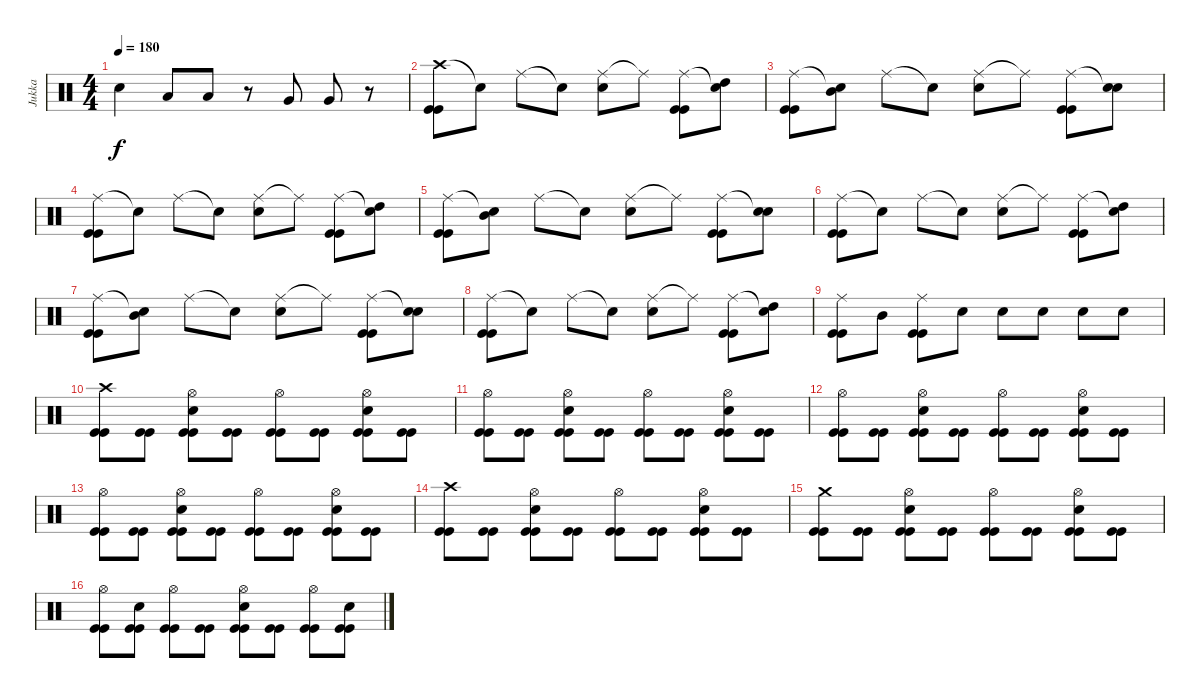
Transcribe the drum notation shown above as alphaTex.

\track ("Jukka" "Jukka") {instrument percussion}
\staff {score}
\articulation defaults
\ts (4 4)
\tempo 180
\clef neutral
\ks c "Snare (hit) 2".4{dy f} "Low Tom (hit)".8 "Low Tom (hit)".8
r.8 "Very Low Tom (hit)".8 "Very Low Tom (hit)".8 r.8 |
("Crash high (hit)" "Kick (hit)" "Kick (hit)").8 "Snare (hit)"{t}.8 "Ride (middle)".8 "Snare (hit)"{t}.8 ("Ride (middle)" "Snare (hit) 2").8 "Ride (middle)"{t}.8 ("Ride (middle)" "Kick (hit)" "Kick (hit)").8 ("Snare (hit)"{t} "High Tom (hit)").8 |
("Ride (middle)" "Kick (hit)" "Kick (hit)").8 ("Snare (hit)"{t} "Mid Tom (hit)").8 "Ride (middle)".8 "Snare (hit)"{t}.8 ("Ride (middle)" "Snare (hit) 2").8 "Ride (middle)"{t}.8 ("Ride (middle)" "Kick (hit)" "Kick (hit)").8 ("Snare (hit)"{t} "Snare (hit) 2").8 |
("Ride (middle)" "Kick (hit)" "Kick (hit)").8 "Snare (hit)"{t}.8 "Ride (middle)".8 "Snare (hit)"{t}.8 ("Ride (middle)" "Snare (hit) 2").8 "Ride (middle)"{t}.8 ("Ride (middle)" "Kick (hit)" "Kick (hit)").8 ("Snare (hit)"{t} "High Tom (hit)").8 |
("Ride (middle)" "Kick (hit)" "Kick (hit)").8 ("Snare (hit)"{t} "Mid Tom (hit)").8 "Ride (middle)".8 "Snare (hit)"{t}.8 ("Ride (middle)" "Snare (hit) 2").8 "Ride (middle)"{t}.8 ("Ride (middle)" "Kick (hit)" "Kick (hit)").8 ("Snare (hit)"{t} "Snare (hit) 2").8 |
("Ride (middle)" "Kick (hit)" "Kick (hit)").8 "Snare (hit)"{t}.8 "Ride (middle)".8 "Snare (hit)"{t}.8 ("Ride (middle)" "Snare (hit) 2").8 "Ride (middle)"{t}.8 ("Ride (middle)" "Kick (hit)" "Kick (hit)").8 ("Snare (hit)"{t} "High Tom (hit)").8 |
("Ride (middle)" "Kick (hit)" "Kick (hit)").8 ("Snare (hit)"{t} "Mid Tom (hit)").8 "Ride (middle)".8 "Snare (hit)"{t}.8 ("Ride (middle)" "Snare (hit) 2").8 "Ride (middle)"{t}.8 ("Ride (middle)" "Kick (hit)" "Kick (hit)").8 ("Snare (hit)"{t} "Snare (hit) 2").8 |
("Ride (middle)" "Kick (hit)" "Kick (hit)").8 "Snare (hit)"{t}.8 "Ride (middle)".8 "Snare (hit)"{t}.8 ("Ride (middle)" "Snare (hit) 2").8 "Ride (middle)"{t}.8 ("Ride (middle)" "Kick (hit)" "Kick (hit)").8 ("Snare (hit)"{t} "High Tom (hit)").8 |
("Ride (middle)" "Kick (hit)" "Kick (hit)").8 "Mid Tom (hit)".8 ("Ride (middle)" "Kick (hit)" "Kick (hit)").8 "Snare (hit) 2".8 "Snare (hit) 2".8 "Snare (hit) 2".8 "Snare (hit) 2".8 "Snare (hit) 2".8 |
("Crash high (hit)" "Kick (hit)" "Kick (hit)").8 ("Kick (hit)" "Kick (hit)").8 ("Hi-Hat (open)" "Kick (hit)" "Kick (hit)" "Snare (hit) 2").8 ("Kick (hit)" "Kick (hit)").8 ("Hi-Hat (open)" "Kick (hit)" "Kick (hit)").8 ("Kick (hit)" "Kick (hit)").8 ("Hi-Hat (open)" "Kick (hit)" "Kick (hit)" "Snare (hit) 2").8 ("Kick (hit)" "Kick (hit)").8 |
("Hi-Hat (open)" "Kick (hit)" "Kick (hit)").8 ("Kick (hit)" "Kick (hit)").8 ("Hi-Hat (open)" "Kick (hit)" "Kick (hit)" "Snare (hit) 2").8 ("Kick (hit)" "Kick (hit)").8 ("Hi-Hat (open)" "Kick (hit)" "Kick (hit)").8 ("Kick (hit)" "Kick (hit)").8 ("Hi-Hat (open)" "Kick (hit)" "Kick (hit)" "Snare (hit) 2").8 ("Kick (hit)" "Kick (hit)").8 |
("Hi-Hat (open)" "Kick (hit)" "Kick (hit)").8 ("Kick (hit)" "Kick (hit)").8 ("Hi-Hat (open)" "Kick (hit)" "Kick (hit)" "Snare (hit) 2").8 ("Kick (hit)" "Kick (hit)").8 ("Hi-Hat (open)" "Kick (hit)" "Kick (hit)").8 ("Kick (hit)" "Kick (hit)").8 ("Hi-Hat (open)" "Kick (hit)" "Kick (hit)" "Snare (hit) 2").8 ("Kick (hit)" "Kick (hit)").8 |
("Hi-Hat (open)" "Kick (hit)" "Kick (hit)").8 ("Kick (hit)" "Kick (hit)").8 ("Hi-Hat (open)" "Kick (hit)" "Kick (hit)" "Snare (hit) 2").8 ("Kick (hit)" "Kick (hit)").8 ("Hi-Hat (open)" "Kick (hit)" "Kick (hit)").8 ("Kick (hit)" "Kick (hit)").8 ("Hi-Hat (open)" "Kick (hit)" "Kick (hit)" "Snare (hit) 2").8 ("Kick (hit)" "Kick (hit)").8 |
("Crash high (hit)" "Kick (hit)" "Kick (hit)").8 ("Kick (hit)" "Kick (hit)").8 ("Hi-Hat (open)" "Kick (hit)" "Kick (hit)" "Snare (hit) 2").8 ("Kick (hit)" "Kick (hit)").8 ("Hi-Hat (open)" "Kick (hit)" "Kick (hit)").8 ("Kick (hit)" "Kick (hit)").8 ("Hi-Hat (open)" "Kick (hit)" "Kick (hit)" "Snare (hit) 2").8 ("Kick (hit)" "Kick (hit)").8 |
("Crash medium (hit)" "Kick (hit)" "Kick (hit)").8 ("Kick (hit)" "Kick (hit)").8 ("Hi-Hat (open)" "Kick (hit)" "Kick (hit)" "Snare (hit) 2").8 ("Kick (hit)" "Kick (hit)").8 ("Hi-Hat (open)" "Kick (hit)" "Kick (hit)").8 ("Kick (hit)" "Kick (hit)").8 ("Hi-Hat (open)" "Kick (hit)" "Kick (hit)" "Snare (hit) 2").8 ("Kick (hit)" "Kick (hit)").8 |
("Hi-Hat (open)" "Kick (hit)" "Kick (hit)").8 ("Kick (hit)" "Kick (hit)" "Snare (hit) 2").8 ("Hi-Hat (open)" "Kick (hit)" "Kick (hit)").8 ("Kick (hit)" "Kick (hit)").8 ("Hi-Hat (open)" "Kick (hit)" "Kick (hit)" "Snare (hit) 2").8 ("Kick (hit)" "Kick (hit)").8 ("Hi-Hat (open)" "Kick (hit)" "Kick (hit)").8 ("Kick (hit)" "Kick (hit)" "Snare (hit) 2").8
